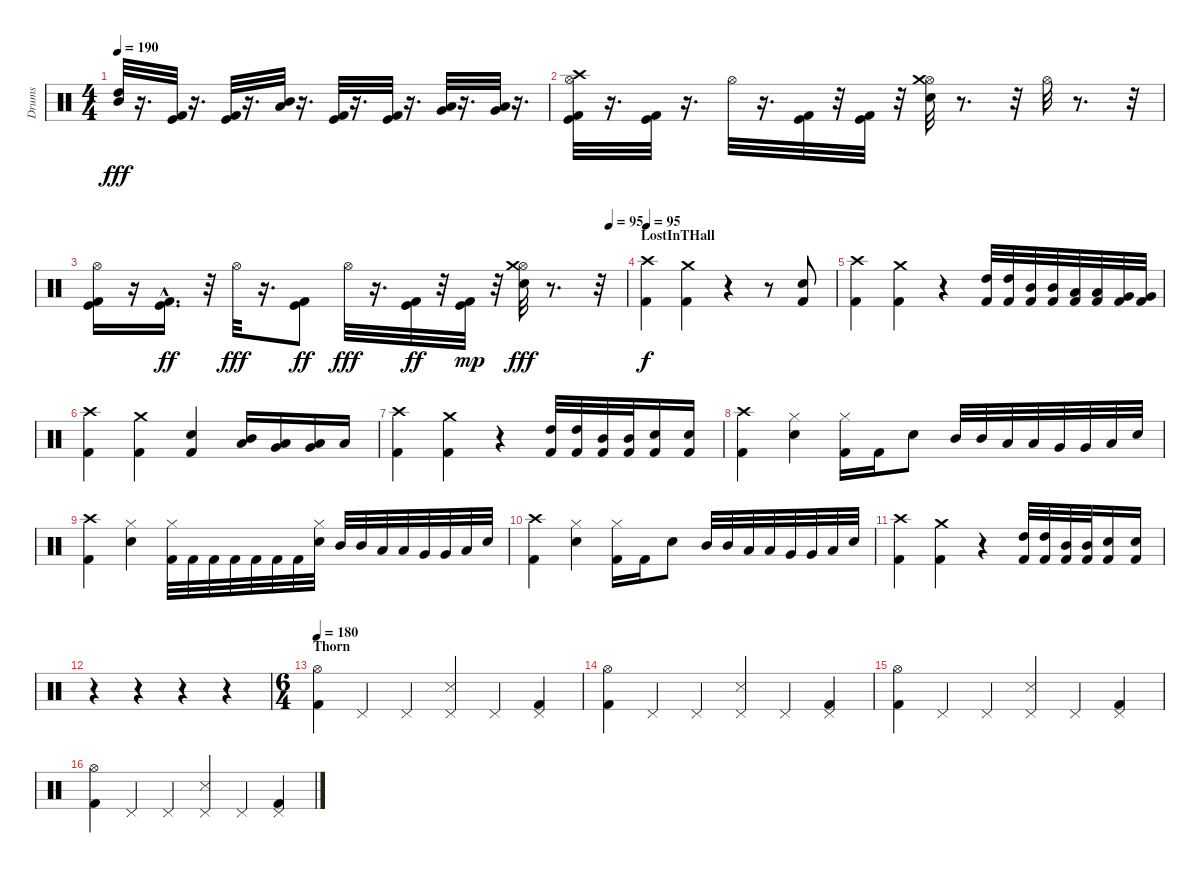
\track ("Drums" "Drums") {instrument percussion}
\staff {score}
\articulation defaults
\ts (4 4)
\tempo 190
\clef neutral
\ks c
("Mid Tom (hit)" "High Tom (hit)").32{dy fff} r.16{d} ("Kick (hit)" "Kick (hit) 2").32 r.16{d} ("Kick (hit)" "Kick (hit) 2").32 r.16{d} ("Low Tom (hit)" "Mid Tom (hit)").32 r.16{d} ("Kick (hit)" "Kick (hit) 2").32 r.16{d} ("Kick (hit)" "Kick (hit) 2").32 r.16{d} ("Very Low Tom (hit)" "Low Tom (hit)").32 r.16{d} ("Low Floor Tom (hit)" "Very Low Tom (hit)").32 r.16{d} |
("Kick (hit)" "Kick (hit) 2" "Hi-Hat (open)" "Crash high (hit)").32 r.16{d} ("Kick (hit)" "Kick (hit) 2").32 r.16{d} "Hi-Hat (open)".32 r.16{d} ("Kick (hit)" "Kick (hit) 2").32 r.32 ("Kick (hit)" "Kick (hit) 2").32 r.32 ("Snare (hit) 2" "Hi-Hat (open)" "Crash medium (hit)").32 r.8{d} r.32 "Hi-Hat (open)".32 r.8{d} r.32 |
\tempo (95 0.96875)
("Kick (hit)" "Kick (hit) 2" "Hi-Hat (open)").16 r.16 ("Kick (hit)" "Kick (hit) 2"{hac}).16{d dy ff} r.32 "Hi-Hat (open)".32{dy fff} r.16{d} ("Kick (hit)" "Kick (hit) 2").8{dy ff} "Hi-Hat (open)".32{dy fff} r.16{d} ("Kick (hit)" "Kick (hit) 2").32{dy ff} r.32 ("Kick (hit)" "Kick (hit) 2").32{dy mp} r.32 ("Snare (hit) 2" "Hi-Hat (open)" "Crash medium (hit)").32{dy fff} r.8{d} r.32 |
\section ("" "LostInTHall")
\tempo 95
("Crash high (hit)" "Kick (hit) 2").4{dy f} ("Crash medium (hit)" "Kick (hit) 2").4 r.4 r.8 ("Snare (hit) 2" "Kick (hit) 2").8 |
("Crash high (hit)" "Kick (hit) 2").4 ("Crash medium (hit)" "Kick (hit) 2").4 r.4 ("High Tom (hit)" "Kick (hit) 2").32 ("High Tom (hit)" "Kick (hit) 2").32 ("Mid Tom (hit)" "Kick (hit) 2").32 ("Mid Tom (hit)" "Kick (hit) 2").32 ("Low Tom (hit)" "Kick (hit) 2").32 ("Low Tom (hit)" "Kick (hit) 2").32 ("Very Low Tom (hit)" "Kick (hit) 2").32 ("Very Low Tom (hit)" "Kick (hit) 2").32 |
("Crash high (hit)" "Kick (hit) 2").4 ("Crash medium (hit)" "Kick (hit) 2").4 ("Snare (hit) 2" "Kick (hit) 2").4 ("Mid Tom (hit)" "Low Tom (hit)").16 ("Low Tom (hit)" "Very Low Tom (hit)").16 ("Very Low Tom (hit)" "Low Floor Tom (hit)").16 "Low Floor Tom (hit)".16 |
("Crash high (hit)" "Kick (hit) 2").4 ("Crash medium (hit)" "Kick (hit) 2").4 r.4 ("High Tom (hit)" "Kick (hit) 2").32 ("High Tom (hit)" "Kick (hit) 2").32 ("Mid Tom (hit)" "Kick (hit) 2").32 ("Mid Tom (hit)" "Kick (hit) 2").32 ("Snare (hit) 2" "Kick (hit) 2").16 ("Snare (hit) 2" "Kick (hit) 2").16 |
("Crash high (hit)" "Kick (hit) 2").4 ("Hi-Hat (closed)" "Snare (hit) 2").4 ("Hi-Hat (closed)" "Kick (hit) 2").16 "Kick (hit) 2".16 "Snare (hit) 2".8 "Mid Tom (hit)".32 "Mid Tom (hit)".32 "Low Tom (hit)".32 "Low Tom (hit)".32 "Very Low Tom (hit)".32 "Very Low Tom (hit)".32 "Low Floor Tom (hit)".32 "Snare (hit) 2".32 |
("Crash high (hit)" "Kick (hit) 2").4 ("Hi-Hat (closed)" "Snare (hit) 2").4 ("Hi-Hat (closed)" "Kick (hit) 2").32 "Kick (hit) 2".32 "Kick (hit) 2".32 "Kick (hit) 2".32 "Kick (hit) 2".32 "Kick (hit) 2".32 "Kick (hit) 2".32 ("Hi-Hat (closed)" "Snare (hit) 2").32 "Mid Tom (hit)".32 "Mid Tom (hit)".32 "Low Tom (hit)".32 "Low Tom (hit)".32 "Very Low Tom (hit)".32 "Very Low Tom (hit)".32 "Low Floor Tom (hit)".32 "Snare (hit) 2".32 |
("Crash high (hit)" "Kick (hit) 2").4 ("Hi-Hat (closed)" "Snare (hit) 2").4 ("Hi-Hat (closed)" "Kick (hit) 2").16 "Kick (hit) 2".16 "Snare (hit) 2".8 "Mid Tom (hit)".32 "Mid Tom (hit)".32 "Low Tom (hit)".32 "Low Tom (hit)".32 "Very Low Tom (hit)".32 "Very Low Tom (hit)".32 "Low Floor Tom (hit)".32 "Snare (hit) 2".32 |
("Crash high (hit)" "Kick (hit) 2").4 ("Crash medium (hit)" "Kick (hit) 2").4 r.4 ("High Tom (hit)" "Kick (hit) 2").32 ("High Tom (hit)" "Kick (hit) 2").32 ("Mid Tom (hit)" "Kick (hit) 2").32 ("Mid Tom (hit)" "Kick (hit) 2").32 ("Snare (hit) 2" "Kick (hit) 2").16 ("Snare (hit) 2" "Kick (hit) 2").16 |
r.4 r.4 r.4 r.4 |
\ts (6 4)
\section ("" "Thorn")
\tempo 180
("Hi-Hat (open)" "Kick (hit) 2").4 "Pedal Hi-Hat (hit)".4 "Pedal Hi-Hat (hit)".4 ("Pedal Hi-Hat (hit)" "Snare (side stick) 3").4 "Pedal Hi-Hat (hit)".4 ("Pedal Hi-Hat (hit)" "Kick (hit) 2").4 |
("Hi-Hat (open)" "Kick (hit) 2").4 "Pedal Hi-Hat (hit)".4 "Pedal Hi-Hat (hit)".4 ("Pedal Hi-Hat (hit)" "Snare (side stick) 3").4 "Pedal Hi-Hat (hit)".4 ("Pedal Hi-Hat (hit)" "Kick (hit) 2").4 |
("Hi-Hat (open)" "Kick (hit) 2").4 "Pedal Hi-Hat (hit)".4 "Pedal Hi-Hat (hit)".4 ("Pedal Hi-Hat (hit)" "Snare (side stick) 3").4 "Pedal Hi-Hat (hit)".4 ("Pedal Hi-Hat (hit)" "Kick (hit) 2").4 |
("Hi-Hat (open)" "Kick (hit) 2").4 "Pedal Hi-Hat (hit)".4 "Pedal Hi-Hat (hit)".4 ("Pedal Hi-Hat (hit)" "Snare (side stick) 3").4 "Pedal Hi-Hat (hit)".4 ("Pedal Hi-Hat (hit)" "Kick (hit) 2").4
